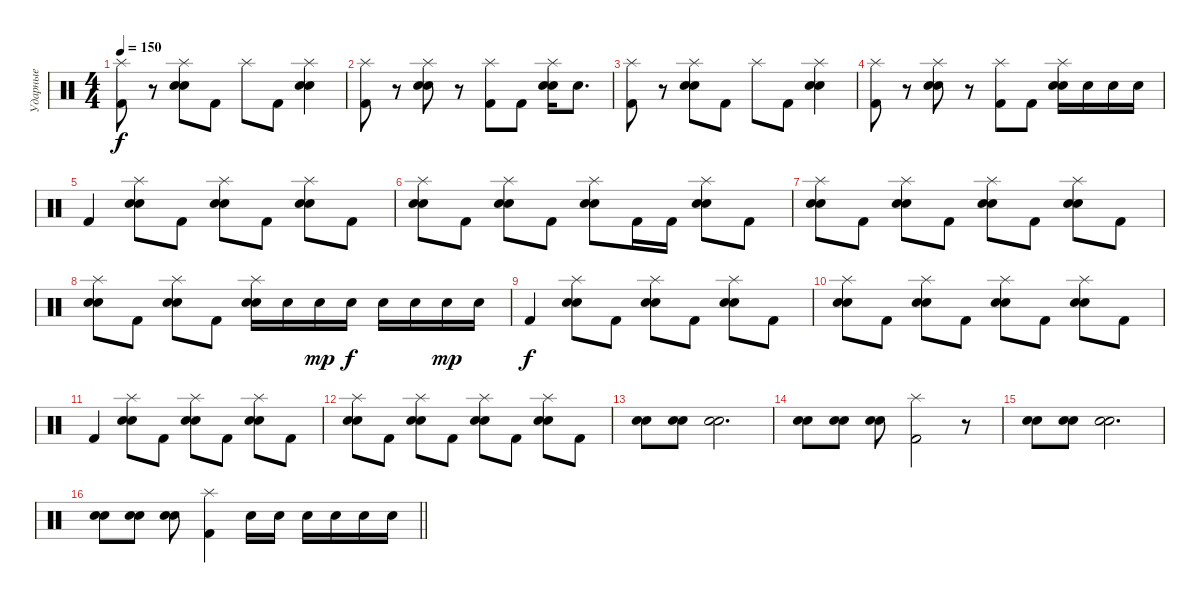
\track ("Ударные" "Ударные") {instrument percussion}
\staff {score}
\articulation defaults
\ts (4 4)
\tempo 150
\clef neutral
\ks c
("Splash (hit)" "Kick (hit) 2").8{dy f} r.8 ("Splash (hit)" "Electric Snare (hit)" "Snare (hit) 2").8 "Kick (hit) 2".8 "Splash (hit)".8 "Kick (hit) 2".8 ("Splash (hit)" "Electric Snare (hit)" "Snare (hit) 2").4 |
("Splash (hit)" "Kick (hit) 2").8 r.8 ("Splash (hit)" "Electric Snare (hit)" "Snare (hit) 2").8 r.8 ("Splash (hit)" "Kick (hit) 2").8 "Kick (hit) 2".8 ("Splash (hit)" "Electric Snare (hit)" "Snare (hit) 2").16 "Electric Snare (hit)".8{d} |
("Splash (hit)" "Kick (hit) 2").8 r.8 ("Splash (hit)" "Electric Snare (hit)" "Snare (hit) 2").8 "Kick (hit) 2".8 "Splash (hit)".8 "Kick (hit) 2".8 ("Splash (hit)" "Electric Snare (hit)" "Snare (hit) 2").4 |
("Splash (hit)" "Kick (hit) 2").8 r.8 ("Splash (hit)" "Electric Snare (hit)" "Snare (hit) 2").8 r.8 ("Splash (hit)" "Kick (hit) 2").8 "Kick (hit) 2".8 ("Splash (hit)" "Electric Snare (hit)" "Snare (hit) 2").16 "Electric Snare (hit)".16 "Electric Snare (hit)".16 "Electric Snare (hit)".16 |
"Kick (hit) 2".4 ("Splash (hit)" "Electric Snare (hit)" "Snare (hit) 2").8 "Kick (hit) 2".8 ("Splash (hit)" "Electric Snare (hit)" "Snare (hit) 2").8 "Kick (hit) 2".8 ("Splash (hit)" "Electric Snare (hit)" "Snare (hit) 2").8 "Kick (hit) 2".8 |
("Splash (hit)" "Electric Snare (hit)" "Snare (hit) 2").8 "Kick (hit) 2".8 ("Splash (hit)" "Electric Snare (hit)" "Snare (hit) 2").8 "Kick (hit) 2".8 ("Splash (hit)" "Electric Snare (hit)" "Snare (hit) 2").8 "Kick (hit) 2".16 "Kick (hit) 2".16 ("Splash (hit)" "Electric Snare (hit)" "Snare (hit) 2").8 "Kick (hit) 2".8 |
("Splash (hit)" "Electric Snare (hit)" "Snare (hit) 2").8 "Kick (hit) 2".8 ("Splash (hit)" "Electric Snare (hit)" "Snare (hit) 2").8 "Kick (hit) 2".8 ("Splash (hit)" "Electric Snare (hit)" "Snare (hit) 2").8 "Kick (hit) 2".8 ("Splash (hit)" "Electric Snare (hit)" "Snare (hit) 2").8 "Kick (hit) 2".8 |
("Splash (hit)" "Electric Snare (hit)" "Snare (hit) 2").8 "Kick (hit) 2".8 ("Splash (hit)" "Electric Snare (hit)" "Snare (hit) 2").8 "Kick (hit) 2".8 ("Splash (hit)" "Electric Snare (hit)" "Snare (hit) 2").16 "Electric Snare (hit)".16 "Electric Snare (hit)".16{dy mp} "Electric Snare (hit)".16{dy f} "Electric Snare (hit)".16 "Electric Snare (hit)".16 "Electric Snare (hit)".16{dy mp} "Electric Snare (hit)".16 |
"Kick (hit) 2".4{dy f} ("Splash (hit)" "Electric Snare (hit)" "Snare (hit) 2").8 "Kick (hit) 2".8 ("Splash (hit)" "Electric Snare (hit)" "Snare (hit) 2").8 "Kick (hit) 2".8 ("Splash (hit)" "Electric Snare (hit)" "Snare (hit) 2").8 "Kick (hit) 2".8 |
("Splash (hit)" "Electric Snare (hit)" "Snare (hit) 2").8 "Kick (hit) 2".8 ("Splash (hit)" "Electric Snare (hit)" "Snare (hit) 2").8 "Kick (hit) 2".8 ("Splash (hit)" "Electric Snare (hit)" "Snare (hit) 2").8 "Kick (hit) 2".8 ("Splash (hit)" "Electric Snare (hit)" "Snare (hit) 2").8 "Kick (hit) 2".8 |
"Kick (hit) 2".4 ("Splash (hit)" "Electric Snare (hit)" "Snare (hit) 2").8 "Kick (hit) 2".8 ("Splash (hit)" "Electric Snare (hit)" "Snare (hit) 2").8 "Kick (hit) 2".8 ("Splash (hit)" "Electric Snare (hit)" "Snare (hit) 2").8 "Kick (hit) 2".8 |
("Splash (hit)" "Electric Snare (hit)" "Snare (hit) 2").8 "Kick (hit) 2".8 ("Splash (hit)" "Electric Snare (hit)" "Snare (hit) 2").8 "Kick (hit) 2".8 ("Splash (hit)" "Electric Snare (hit)" "Snare (hit) 2").8 "Kick (hit) 2".8 ("Splash (hit)" "Electric Snare (hit)" "Snare (hit) 2").8 "Kick (hit) 2".8 |
("Electric Snare (hit)" "Snare (hit) 2").8 ("Electric Snare (hit)" "Snare (hit) 2").8 ("Electric Snare (hit)" "Snare (hit) 2").2{d} |
("Electric Snare (hit)" "Snare (hit) 2").8 ("Electric Snare (hit)" "Snare (hit) 2").8 ("Electric Snare (hit)" "Snare (hit) 2").8 ("Splash (hit)" "Kick (hit) 2").2 r.8 |
("Electric Snare (hit)" "Snare (hit) 2").8 ("Electric Snare (hit)" "Snare (hit) 2").8 ("Electric Snare (hit)" "Snare (hit) 2").2{d} |
\barLineRight lightlight
("Electric Snare (hit)" "Snare (hit) 2").8 ("Electric Snare (hit)" "Snare (hit) 2").8 ("Electric Snare (hit)" "Snare (hit) 2").8 ("Splash (hit)" "Kick (hit) 2").4 "Electric Snare (hit)".16 "Electric Snare (hit)".16 "Electric Snare (hit)".16 "Electric Snare (hit)".16 "Electric Snare (hit)".16 "Electric Snare (hit)".16
